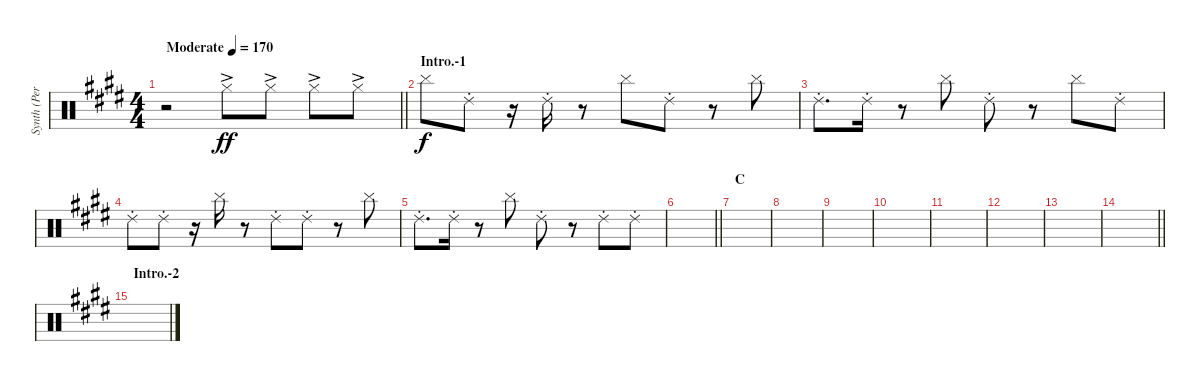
\track ("Synth (Percussion)" "Synth (Per") {instrument percussion}
\staff {score}
\articulation defaults
\ts (4 4)
\tempo (170 "Moderate")
\clef neutral
\barLineRight lightlight
\ks e
r.2{dy ff} "Hi-Hat (closed)"{ac}.8 "Hi-Hat (closed)"{ac}.8 "Hi-Hat (closed)"{ac}.8 "Hi-Hat (closed)"{ac}.8 |
\section ("" "Intro.-1")
"Cymbal (hit)".8{dy f} "Ride (choke) 2".8 r.16 "Ride (choke) 2".16 r.8 "Cymbal (hit)".8 "Ride (choke) 2".8 r.8 "Cymbal (hit)".8 |
"Ride (choke) 2".8{d} "Ride (choke) 2".16 r.8 "Cymbal (hit)".8 "Ride (choke) 2".8 r.8 "Cymbal (hit)".8 "Ride (choke) 2".8 |
"Ride (choke) 2".8 "Ride (choke) 2".8 r.16 "Cymbal (hit)".16 r.8 "Ride (choke) 2".8 "Ride (choke) 2".8 r.8 "Cymbal (hit)".8 |
"Ride (choke) 2".8{d} "Ride (choke) 2".16 r.8 "Cymbal (hit)".8 "Ride (choke) 2".8 r.8 "Ride (choke) 2".8 "Ride (choke) 2".8 |
\barLineRight lightlight
|
\section ("" "C")
|
|
|
|
|
|
|
\barLineRight lightlight
|
\section ("" "Intro.-2")
